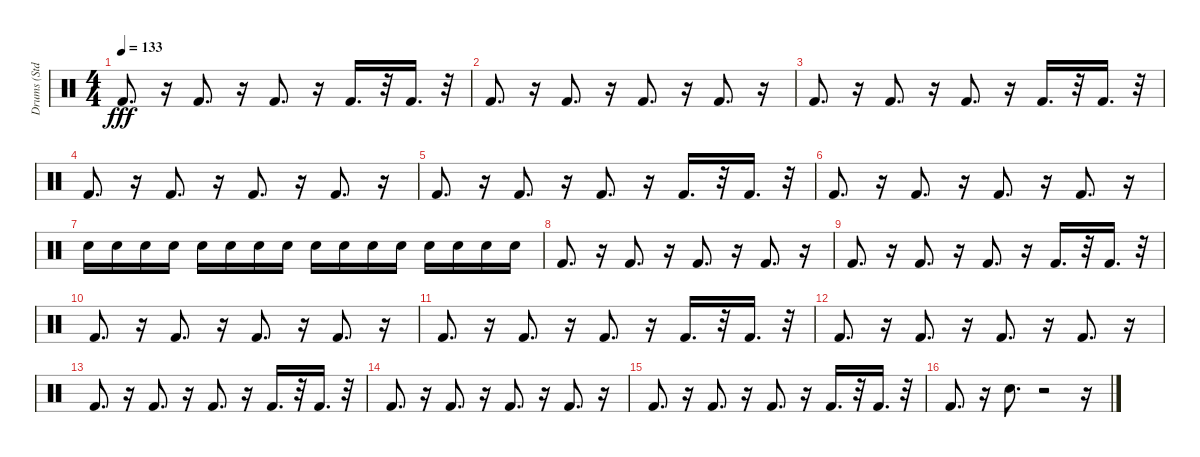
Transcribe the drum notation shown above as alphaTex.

\track ("Drums (Std.)" "Drums (Std") {instrument percussion}
\staff {score}
\articulation defaults
\ts (4 4)
\tempo 133
\clef neutral
\ks c "Kick (hit) 2".8{d dy fff}
r.16 "Kick (hit) 2".8{d} r.16 "Kick (hit) 2".8{d} r.16 "Kick (hit) 2".16{d} r.32 "Kick (hit) 2".16{d} r.32 |
"Kick (hit) 2".8{d} r.16 "Kick (hit) 2".8{d} r.16 "Kick (hit) 2".8{d} r.16 "Kick (hit) 2".8{d} r.16 |
"Kick (hit) 2".8{d} r.16 "Kick (hit) 2".8{d} r.16 "Kick (hit) 2".8{d} r.16 "Kick (hit) 2".16{d} r.32 "Kick (hit) 2".16{d} r.32 |
"Kick (hit) 2".8{d} r.16 "Kick (hit) 2".8{d} r.16 "Kick (hit) 2".8{d} r.16 "Kick (hit) 2".8{d} r.16 |
"Kick (hit) 2".8{d} r.16 "Kick (hit) 2".8{d} r.16 "Kick (hit) 2".8{d} r.16 "Kick (hit) 2".16{d} r.32 "Kick (hit) 2".16{d} r.32 |
"Kick (hit) 2".8{d} r.16 "Kick (hit) 2".8{d} r.16 "Kick (hit) 2".8{d} r.16 "Kick (hit) 2".8{d} r.16 |
"Snare (hit) 2".16 "Snare (hit) 2".16 "Snare (hit) 2".16 "Snare (hit) 2".16 "Snare (hit) 2".16 "Snare (hit) 2".16 "Snare (hit) 2".16 "Snare (hit) 2".16 "Snare (hit) 2".16 "Snare (hit) 2".16 "Snare (hit) 2".16 "Snare (hit) 2".16 "Snare (hit) 2".16 "Snare (hit) 2".16 "Snare (hit) 2".16 "Snare (hit) 2".16 |
"Kick (hit) 2".8{d} r.16 "Kick (hit) 2".8{d} r.16 "Kick (hit) 2".8{d} r.16 "Kick (hit) 2".8{d} r.16 |
"Kick (hit) 2".8{d} r.16 "Kick (hit) 2".8{d} r.16 "Kick (hit) 2".8{d} r.16 "Kick (hit) 2".16{d} r.32 "Kick (hit) 2".16{d} r.32 |
"Kick (hit) 2".8{d} r.16 "Kick (hit) 2".8{d} r.16 "Kick (hit) 2".8{d} r.16 "Kick (hit) 2".8{d} r.16 |
"Kick (hit) 2".8{d} r.16 "Kick (hit) 2".8{d} r.16 "Kick (hit) 2".8{d} r.16 "Kick (hit) 2".16{d} r.32 "Kick (hit) 2".16{d} r.32 |
"Kick (hit) 2".8{d} r.16 "Kick (hit) 2".8{d} r.16 "Kick (hit) 2".8{d} r.16 "Kick (hit) 2".8{d} r.16 |
"Kick (hit) 2".8{d} r.16 "Kick (hit) 2".8{d} r.16 "Kick (hit) 2".8{d} r.16 "Kick (hit) 2".16{d} r.32 "Kick (hit) 2".16{d} r.32 |
"Kick (hit) 2".8{d} r.16 "Kick (hit) 2".8{d} r.16 "Kick (hit) 2".8{d} r.16 "Kick (hit) 2".8{d} r.16 |
"Kick (hit) 2".8{d} r.16 "Kick (hit) 2".8{d} r.16 "Kick (hit) 2".8{d} r.16 "Kick (hit) 2".16{d} r.32 "Kick (hit) 2".16{d} r.32 |
"Kick (hit) 2".8{d} r.16 "Hand Clap (hit)".8{d} r.2 r.16
